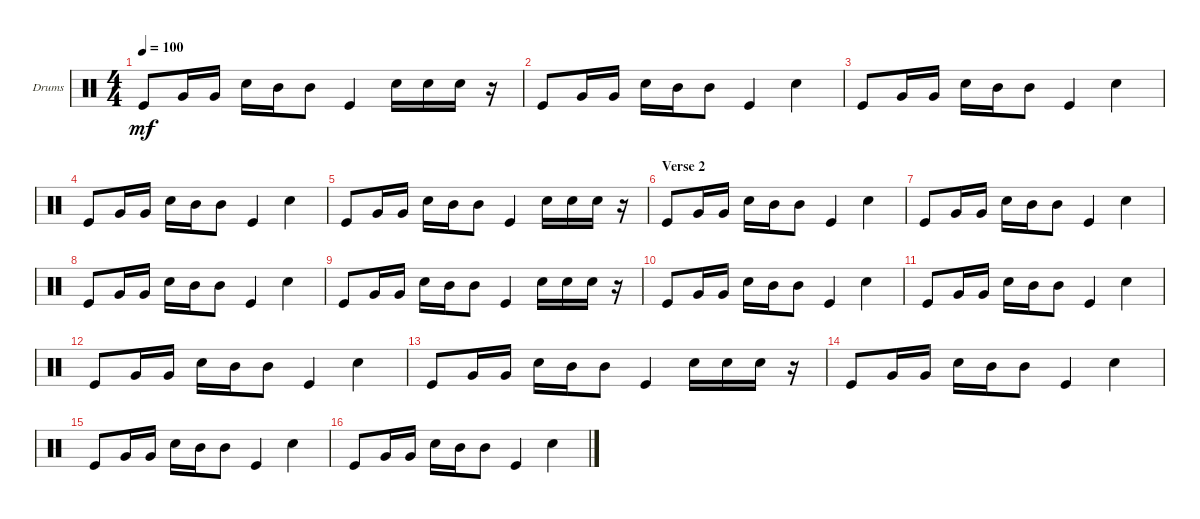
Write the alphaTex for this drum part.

\defaultSystemsLayout 4
\bracketExtendMode groupsimilarinstruments
\firstSystemTrackNameOrientation horizontal
\otherSystemsTrackNameOrientation horizontal
\track ("Dominic Howard" "Drums") {instrument percussion}
\staff {score}
\articulation defaults
\ts (4 4)
\tempo 100
\clef neutral
\ks c "Kick (hit)".8{dy mf} "Very Low Tom (hit)".16 "Very Low Tom (hit)".16 "Snare (hit) 2".16 "Mid Tom (hit)".16 "Mid Tom (hit)".8 "Kick (hit)".4 "Snare (hit) 2".16 "Snare (hit) 2".16 "Snare (hit) 2".16
r.16 |
"Kick (hit)".8 "Very Low Tom (hit)".16 "Very Low Tom (hit)".16 "Snare (hit) 2".16 "Mid Tom (hit)".16 "Mid Tom (hit)".8 "Kick (hit)".4 "Snare (hit) 2".4 |
"Kick (hit)".8 "Very Low Tom (hit)".16 "Very Low Tom (hit)".16 "Snare (hit) 2".16 "Mid Tom (hit)".16 "Mid Tom (hit)".8 "Kick (hit)".4 "Snare (hit) 2".4 |
"Kick (hit)".8 "Very Low Tom (hit)".16 "Very Low Tom (hit)".16 "Snare (hit) 2".16 "Mid Tom (hit)".16 "Mid Tom (hit)".8 "Kick (hit)".4 "Snare (hit) 2".4 |
"Kick (hit)".8 "Very Low Tom (hit)".16 "Very Low Tom (hit)".16 "Snare (hit) 2".16 "Mid Tom (hit)".16 "Mid Tom (hit)".8 "Kick (hit)".4 "Snare (hit) 2".16 "Snare (hit) 2".16 "Snare (hit) 2".16 r.16 |
\section ("" "Verse 2")
"Kick (hit)".8 "Very Low Tom (hit)".16 "Very Low Tom (hit)".16 "Snare (hit) 2".16 "Mid Tom (hit)".16 "Mid Tom (hit)".8 "Kick (hit)".4 "Snare (hit) 2".4 |
"Kick (hit)".8 "Very Low Tom (hit)".16 "Very Low Tom (hit)".16 "Snare (hit) 2".16 "Mid Tom (hit)".16 "Mid Tom (hit)".8 "Kick (hit)".4 "Snare (hit) 2".4 |
"Kick (hit)".8 "Very Low Tom (hit)".16 "Very Low Tom (hit)".16 "Snare (hit) 2".16 "Mid Tom (hit)".16 "Mid Tom (hit)".8 "Kick (hit)".4 "Snare (hit) 2".4 |
"Kick (hit)".8 "Very Low Tom (hit)".16 "Very Low Tom (hit)".16 "Snare (hit) 2".16 "Mid Tom (hit)".16 "Mid Tom (hit)".8 "Kick (hit)".4 "Snare (hit) 2".16 "Snare (hit) 2".16 "Snare (hit) 2".16 r.16 |
"Kick (hit)".8 "Very Low Tom (hit)".16 "Very Low Tom (hit)".16 "Snare (hit) 2".16 "Mid Tom (hit)".16 "Mid Tom (hit)".8 "Kick (hit)".4 "Snare (hit) 2".4 |
"Kick (hit)".8 "Very Low Tom (hit)".16 "Very Low Tom (hit)".16 "Snare (hit) 2".16 "Mid Tom (hit)".16 "Mid Tom (hit)".8 "Kick (hit)".4 "Snare (hit) 2".4 |
"Kick (hit)".8 "Very Low Tom (hit)".16 "Very Low Tom (hit)".16 "Snare (hit) 2".16 "Mid Tom (hit)".16 "Mid Tom (hit)".8 "Kick (hit)".4 "Snare (hit) 2".4 |
"Kick (hit)".8 "Very Low Tom (hit)".16 "Very Low Tom (hit)".16 "Snare (hit) 2".16 "Mid Tom (hit)".16 "Mid Tom (hit)".8 "Kick (hit)".4 "Snare (hit) 2".16 "Snare (hit) 2".16 "Snare (hit) 2".16 r.16 |
"Kick (hit)".8 "Very Low Tom (hit)".16 "Very Low Tom (hit)".16 "Snare (hit) 2".16 "Mid Tom (hit)".16 "Mid Tom (hit)".8 "Kick (hit)".4 "Snare (hit) 2".4 |
"Kick (hit)".8 "Very Low Tom (hit)".16 "Very Low Tom (hit)".16 "Snare (hit) 2".16 "Mid Tom (hit)".16 "Mid Tom (hit)".8 "Kick (hit)".4 "Snare (hit) 2".4 |
"Kick (hit)".8 "Very Low Tom (hit)".16 "Very Low Tom (hit)".16 "Snare (hit) 2".16 "Mid Tom (hit)".16 "Mid Tom (hit)".8 "Kick (hit)".4 "Snare (hit) 2".4
